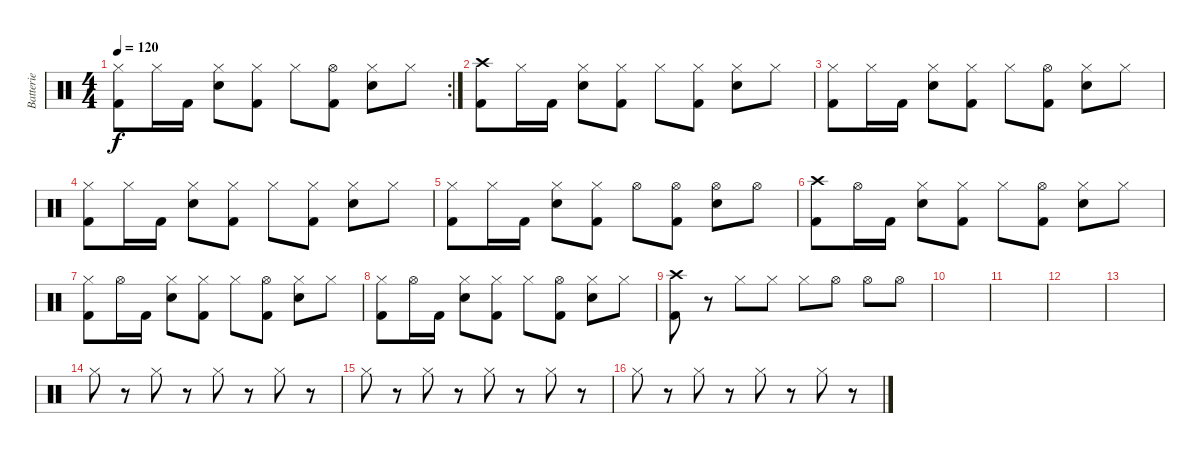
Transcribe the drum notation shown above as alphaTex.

\track ("Batterie" "Batterie") {instrument percussion}
\staff {score}
\articulation defaults
\rc 2
\ts (4 4)
\tempo 120
\clef neutral
\ks c
("Hi-Hat (closed)" "Kick (hit) 2").8{dy f} "Hi-Hat (closed)".16 "Kick (hit) 2".16 ("Hi-Hat (closed)" "Snare (hit) 2").8 ("Hi-Hat (closed)" "Kick (hit) 2").8 "Hi-Hat (closed)".8 ("Hi-Hat (open)" "Kick (hit) 2").8 ("Hi-Hat (closed)" "Snare (hit) 2").8 "Hi-Hat (closed)".8 |
("Crash high (hit)" "Kick (hit) 2").8 "Hi-Hat (closed)".16 "Kick (hit) 2".16 ("Hi-Hat (closed)" "Snare (hit) 2").8 ("Hi-Hat (closed)" "Kick (hit) 2").8 "Hi-Hat (closed)".8 ("Hi-Hat (closed)" "Kick (hit) 2").8 ("Hi-Hat (closed)" "Snare (hit) 2").8 "Hi-Hat (closed)".8 |
("Hi-Hat (closed)" "Kick (hit) 2").8 "Hi-Hat (closed)".16 "Kick (hit) 2".16 ("Hi-Hat (closed)" "Snare (hit) 2").8 ("Hi-Hat (closed)" "Kick (hit) 2").8 "Hi-Hat (closed)".8 ("Hi-Hat (open)" "Kick (hit) 2").8 ("Hi-Hat (closed)" "Snare (hit) 2").8 "Hi-Hat (closed)".8 |
("Hi-Hat (closed)" "Kick (hit) 2").8 "Hi-Hat (closed)".16 "Kick (hit) 2".16 ("Hi-Hat (closed)" "Snare (hit) 2").8 ("Hi-Hat (closed)" "Kick (hit) 2").8 "Hi-Hat (closed)".8 ("Hi-Hat (closed)" "Kick (hit) 2").8 ("Hi-Hat (closed)" "Snare (hit) 2").8 "Hi-Hat (closed)".8 |
("Hi-Hat (closed)" "Kick (hit) 2").8 "Hi-Hat (closed)".16 "Kick (hit) 2".16 ("Hi-Hat (closed)" "Snare (hit) 2").8 ("Hi-Hat (closed)" "Kick (hit) 2").8 "Hi-Hat (open)".8 ("Hi-Hat (open)" "Kick (hit) 2").8 ("Hi-Hat (open)" "Snare (hit) 2").8 "Hi-Hat (open)".8 |
("Crash high (hit)" "Kick (hit) 2").8 "Hi-Hat (open)".16 "Kick (hit) 2".16 ("Hi-Hat (closed)" "Snare (hit) 2").8 ("Hi-Hat (closed)" "Kick (hit) 2").8 "Hi-Hat (closed)".8 ("Hi-Hat (open)" "Kick (hit) 2").8 ("Hi-Hat (closed)" "Snare (hit) 2").8 "Hi-Hat (closed)".8 |
("Hi-Hat (closed)" "Kick (hit) 2").8 "Hi-Hat (open)".16 "Kick (hit) 2".16 ("Hi-Hat (closed)" "Snare (hit) 2").8 ("Hi-Hat (closed)" "Kick (hit) 2").8 "Hi-Hat (closed)".8 ("Hi-Hat (open)" "Kick (hit) 2").8 ("Hi-Hat (closed)" "Snare (hit) 2").8 "Hi-Hat (closed)".8 |
("Hi-Hat (closed)" "Kick (hit) 2").8 "Hi-Hat (open)".16 "Kick (hit) 2".16 ("Hi-Hat (closed)" "Snare (hit) 2").8 ("Hi-Hat (closed)" "Kick (hit) 2").8 "Hi-Hat (closed)".8 ("Hi-Hat (open)" "Kick (hit) 2").8 ("Hi-Hat (closed)" "Snare (hit) 2").8 "Hi-Hat (closed)".8 |
("Crash high (hit)" "Kick (hit) 2").8 r.8 "Hi-Hat (closed)".8 "Hi-Hat (closed)".8 "Hi-Hat (closed)".8 "Hi-Hat (open)".8 "Hi-Hat (open)".8 "Hi-Hat (open)".8 |
|
|
|
|
"Hi-Hat (closed)".8 r.8 "Hi-Hat (closed)".8 r.8 "Hi-Hat (closed)".8 r.8 "Hi-Hat (closed)".8 r.8 |
"Hi-Hat (closed)".8 r.8 "Hi-Hat (closed)".8 r.8 "Hi-Hat (closed)".8 r.8 "Hi-Hat (closed)".8 r.8 |
"Hi-Hat (closed)".8 r.8 "Hi-Hat (closed)".8 r.8 "Hi-Hat (closed)".8 r.8 "Hi-Hat (closed)".8 r.8
